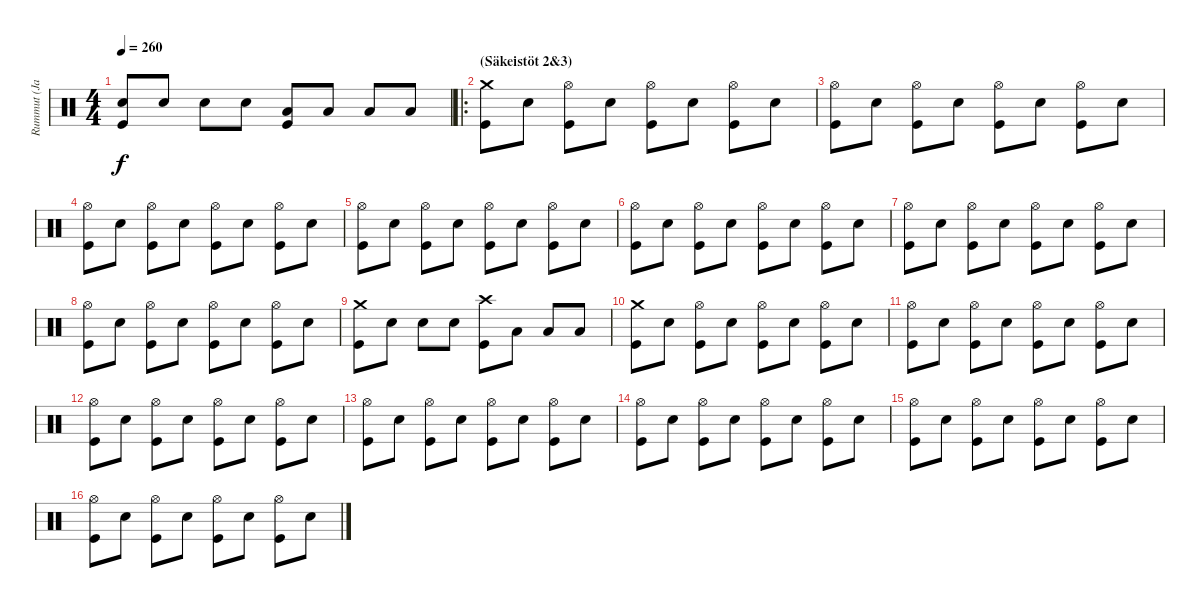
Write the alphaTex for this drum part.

\track ("Rummut (Janne)" "Rummut (Ja") {instrument percussion}
\staff {score}
\articulation defaults
\ts (4 4)
\tempo 260
\clef neutral
\ks c
("Snare (hit) 2" "Kick (hit)").8{dy f} "Snare (hit) 2".8 "Snare (hit) 2".8 "Snare (hit) 2".8 ("Low Tom (hit)" "Kick (hit)").8 "Low Tom (hit)".8 "Low Tom (hit)".8 "Low Tom (hit)".8 |
\ro
\section ("" "(Säkeistöt 2&3)")
("Crash medium (hit)" "Kick (hit)").8 "Snare (hit) 2".8 ("Hi-Hat (open)" "Kick (hit)").8 "Snare (hit) 2".8 ("Hi-Hat (open)" "Kick (hit)").8 "Snare (hit) 2".8 ("Hi-Hat (open)" "Kick (hit)").8 "Snare (hit) 2".8 |
("Hi-Hat (open)" "Kick (hit)").8 "Snare (hit) 2".8 ("Hi-Hat (open)" "Kick (hit)").8 "Snare (hit) 2".8 ("Hi-Hat (open)" "Kick (hit)").8 "Snare (hit) 2".8 ("Hi-Hat (open)" "Kick (hit)").8 "Snare (hit) 2".8 |
("Hi-Hat (open)" "Kick (hit)").8 "Snare (hit) 2".8 ("Hi-Hat (open)" "Kick (hit)").8 "Snare (hit) 2".8 ("Hi-Hat (open)" "Kick (hit)").8 "Snare (hit) 2".8 ("Hi-Hat (open)" "Kick (hit)").8 "Snare (hit) 2".8 |
("Hi-Hat (open)" "Kick (hit)").8 "Snare (hit) 2".8 ("Hi-Hat (open)" "Kick (hit)").8 "Snare (hit) 2".8 ("Hi-Hat (open)" "Kick (hit)").8 "Snare (hit) 2".8 ("Hi-Hat (open)" "Kick (hit)").8 "Snare (hit) 2".8 |
("Hi-Hat (open)" "Kick (hit)").8 "Snare (hit) 2".8 ("Hi-Hat (open)" "Kick (hit)").8 "Snare (hit) 2".8 ("Hi-Hat (open)" "Kick (hit)").8 "Snare (hit) 2".8 ("Hi-Hat (open)" "Kick (hit)").8 "Snare (hit) 2".8 |
("Hi-Hat (open)" "Kick (hit)").8 "Snare (hit) 2".8 ("Hi-Hat (open)" "Kick (hit)").8 "Snare (hit) 2".8 ("Hi-Hat (open)" "Kick (hit)").8 "Snare (hit) 2".8 ("Hi-Hat (open)" "Kick (hit)").8 "Snare (hit) 2".8 |
("Hi-Hat (open)" "Kick (hit)").8 "Snare (hit) 2".8 ("Hi-Hat (open)" "Kick (hit)").8 "Snare (hit) 2".8 ("Hi-Hat (open)" "Kick (hit)").8 "Snare (hit) 2".8 ("Hi-Hat (open)" "Kick (hit)").8 "Snare (hit) 2".8 |
("Crash medium (hit)" "Kick (hit)").8 "Snare (hit) 2".8 "Snare (hit) 2".8 "Snare (hit) 2".8 ("Crash high (hit)" "Kick (hit)").8 "Low Tom (hit)".8 "Low Tom (hit)".8 "Low Tom (hit)".8 |
("Crash medium (hit)" "Kick (hit)").8 "Snare (hit) 2".8 ("Hi-Hat (open)" "Kick (hit)").8 "Snare (hit) 2".8 ("Hi-Hat (open)" "Kick (hit)").8 "Snare (hit) 2".8 ("Hi-Hat (open)" "Kick (hit)").8 "Snare (hit) 2".8 |
("Hi-Hat (open)" "Kick (hit)").8 "Snare (hit) 2".8 ("Hi-Hat (open)" "Kick (hit)").8 "Snare (hit) 2".8 ("Hi-Hat (open)" "Kick (hit)").8 "Snare (hit) 2".8 ("Hi-Hat (open)" "Kick (hit)").8 "Snare (hit) 2".8 |
("Hi-Hat (open)" "Kick (hit)").8 "Snare (hit) 2".8 ("Hi-Hat (open)" "Kick (hit)").8 "Snare (hit) 2".8 ("Hi-Hat (open)" "Kick (hit)").8 "Snare (hit) 2".8 ("Hi-Hat (open)" "Kick (hit)").8 "Snare (hit) 2".8 |
("Hi-Hat (open)" "Kick (hit)").8 "Snare (hit) 2".8 ("Hi-Hat (open)" "Kick (hit)").8 "Snare (hit) 2".8 ("Hi-Hat (open)" "Kick (hit)").8 "Snare (hit) 2".8 ("Hi-Hat (open)" "Kick (hit)").8 "Snare (hit) 2".8 |
("Hi-Hat (open)" "Kick (hit)").8 "Snare (hit) 2".8 ("Hi-Hat (open)" "Kick (hit)").8 "Snare (hit) 2".8 ("Hi-Hat (open)" "Kick (hit)").8 "Snare (hit) 2".8 ("Hi-Hat (open)" "Kick (hit)").8 "Snare (hit) 2".8 |
("Hi-Hat (open)" "Kick (hit)").8 "Snare (hit) 2".8 ("Hi-Hat (open)" "Kick (hit)").8 "Snare (hit) 2".8 ("Hi-Hat (open)" "Kick (hit)").8 "Snare (hit) 2".8 ("Hi-Hat (open)" "Kick (hit)").8 "Snare (hit) 2".8 |
("Hi-Hat (open)" "Kick (hit)").8 "Snare (hit) 2".8 ("Hi-Hat (open)" "Kick (hit)").8 "Snare (hit) 2".8 ("Hi-Hat (open)" "Kick (hit)").8 "Snare (hit) 2".8 ("Hi-Hat (open)" "Kick (hit)").8 "Snare (hit) 2".8
